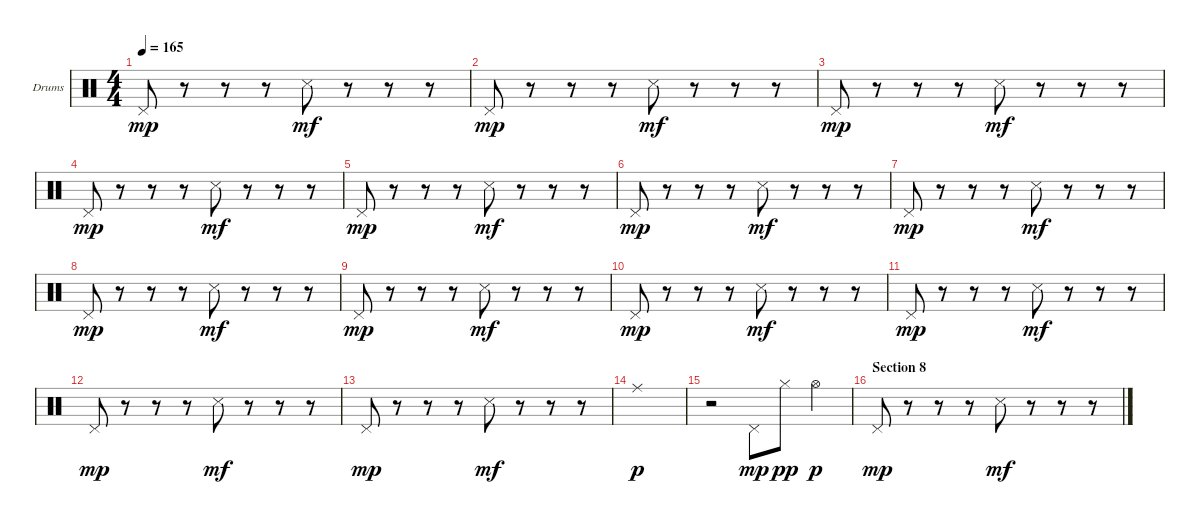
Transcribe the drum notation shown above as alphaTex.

\bracketExtendMode groupsimilarinstruments
\firstSystemTrackNameOrientation horizontal
\otherSystemsTrackNameOrientation horizontal
\track ("Drumkit" "Drums") {instrument percussion}
\staff {score}
\articulation defaults
\ts (4 4)
\tempo 165
\clef neutral
\ks c "Pedal Hi-Hat (hit)".8{dy mp}
r.8 r.8 r.8 "Snare (side stick) 3".8{dy mf} r.8 r.8 r.8 |
"Pedal Hi-Hat (hit)".8{dy mp} r.8 r.8 r.8 "Snare (side stick) 3".8{dy mf} r.8 r.8 r.8 |
"Pedal Hi-Hat (hit)".8{dy mp} r.8 r.8 r.8 "Snare (side stick) 3".8{dy mf} r.8 r.8 r.8 |
"Pedal Hi-Hat (hit)".8{dy mp} r.8 r.8 r.8 "Snare (side stick) 3".8{dy mf} r.8 r.8 r.8 |
"Pedal Hi-Hat (hit)".8{dy mp} r.8 r.8 r.8 "Snare (side stick) 3".8{dy mf} r.8 r.8 r.8 |
"Pedal Hi-Hat (hit)".8{dy mp} r.8 r.8 r.8 "Snare (side stick) 3".8{dy mf} r.8 r.8 r.8 |
"Pedal Hi-Hat (hit)".8{dy mp} r.8 r.8 r.8 "Snare (side stick) 3".8{dy mf} r.8 r.8 r.8 |
"Pedal Hi-Hat (hit)".8{dy mp} r.8 r.8 r.8 "Snare (side stick) 3".8{dy mf} r.8 r.8 r.8 |
"Pedal Hi-Hat (hit)".8{dy mp} r.8 r.8 r.8 "Snare (side stick) 3".8{dy mf} r.8 r.8 r.8 |
"Pedal Hi-Hat (hit)".8{dy mp} r.8 r.8 r.8 "Snare (side stick) 3".8{dy mf} r.8 r.8 r.8 |
"Pedal Hi-Hat (hit)".8{dy mp} r.8 r.8 r.8 "Snare (side stick) 3".8{dy mf} r.8 r.8 r.8 |
"Pedal Hi-Hat (hit)".8{dy mp} r.8 r.8 r.8 "Snare (side stick) 3".8{dy mf} r.8 r.8 r.8 |
"Pedal Hi-Hat (hit)".8{dy mp} r.8 r.8 r.8 "Snare (side stick) 3".8{dy mf} r.8 r.8 r.8 |
"Ride (middle)".1{dy p} |
r.2 "Pedal Hi-Hat (hit)".8{dy mp} "Hi-Hat (closed)".8{dy pp} "Hi-Hat (open)".4{dy p} |
\section ("" "Section 8")
"Pedal Hi-Hat (hit)".8{dy mp} r.8 r.8 r.8 "Snare (side stick) 3".8{dy mf} r.8 r.8 r.8
